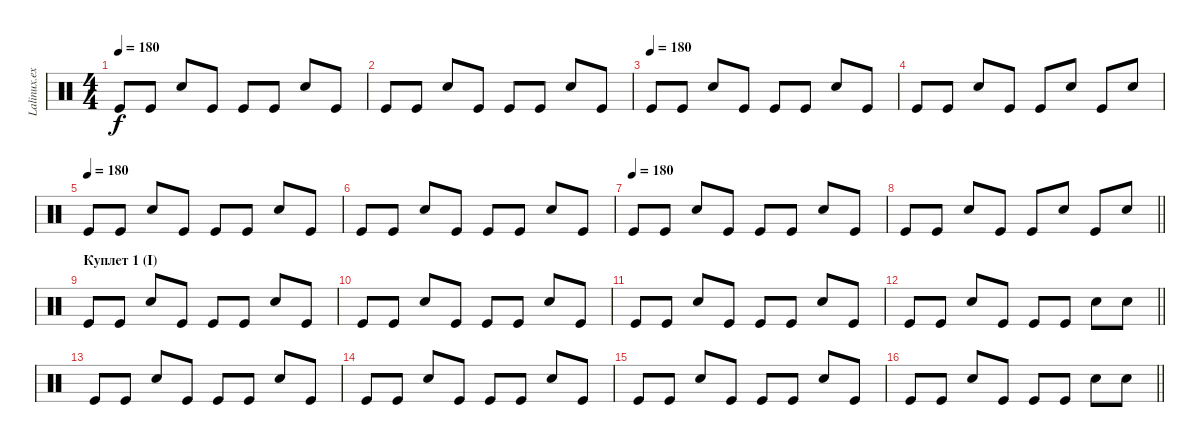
\track ("Lalinux.exe" "Lalinux.ex") {instrument percussion}
\staff {score}
\articulation defaults
\ts (4 4)
\tempo 180
\clef neutral
\ks c "Kick (hit)".8{dy f} "Kick (hit)".8 "Electric Snare (hit)".8 "Kick (hit)".8 "Kick (hit)".8 "Kick (hit)".8 "Electric Snare (hit)".8 "Kick (hit)".8
|
"Kick (hit)".8 "Kick (hit)".8 "Electric Snare (hit)".8 "Kick (hit)".8 "Kick (hit)".8 "Kick (hit)".8 "Electric Snare (hit)".8 "Kick (hit)".8 |
\tempo (180)
"Kick (hit)".8 "Kick (hit)".8 "Electric Snare (hit)".8 "Kick (hit)".8 "Kick (hit)".8 "Kick (hit)".8 "Electric Snare (hit)".8 "Kick (hit)".8 |
"Kick (hit)".8 "Kick (hit)".8 "Electric Snare (hit)".8 "Kick (hit)".8 "Kick (hit)".8 "Electric Snare (hit)".8 "Kick (hit)".8 "Electric Snare (hit)".8 |
\tempo (180)
"Kick (hit)".8 "Kick (hit)".8 "Electric Snare (hit)".8 "Kick (hit)".8 "Kick (hit)".8 "Kick (hit)".8 "Electric Snare (hit)".8 "Kick (hit)".8 |
"Kick (hit)".8 "Kick (hit)".8 "Electric Snare (hit)".8 "Kick (hit)".8 "Kick (hit)".8 "Kick (hit)".8 "Electric Snare (hit)".8 "Kick (hit)".8 |
\tempo (180)
"Kick (hit)".8 "Kick (hit)".8 "Electric Snare (hit)".8 "Kick (hit)".8 "Kick (hit)".8 "Kick (hit)".8 "Electric Snare (hit)".8 "Kick (hit)".8 |
\barLineRight lightlight "Kick (hit)".8 "Kick (hit)".8 "Electric Snare (hit)".8 "Kick (hit)".8 "Kick (hit)".8 "Electric Snare (hit)".8 "Kick (hit)".8 "Electric Snare (hit)".8
|
\section ("" "Куплет 1 (I)")
"Kick (hit)".8 "Kick (hit)".8 "Electric Snare (hit)".8 "Kick (hit)".8 "Kick (hit)".8 "Kick (hit)".8 "Electric Snare (hit)".8 "Kick (hit)".8 |
"Kick (hit)".8 "Kick (hit)".8 "Electric Snare (hit)".8 "Kick (hit)".8 "Kick (hit)".8 "Kick (hit)".8 "Electric Snare (hit)".8 "Kick (hit)".8 |
"Kick (hit)".8 "Kick (hit)".8 "Electric Snare (hit)".8 "Kick (hit)".8 "Kick (hit)".8 "Kick (hit)".8 "Electric Snare (hit)".8 "Kick (hit)".8 |
\barLineRight lightlight "Kick (hit)".8 "Kick (hit)".8 "Electric Snare (hit)".8 "Kick (hit)".8 "Kick (hit)".8 "Kick (hit)".8 "Electric Snare (hit)".8 "Electric Snare (hit)".8
|
"Kick (hit)".8 "Kick (hit)".8 "Electric Snare (hit)".8 "Kick (hit)".8 "Kick (hit)".8 "Kick (hit)".8 "Electric Snare (hit)".8 "Kick (hit)".8 |
"Kick (hit)".8 "Kick (hit)".8 "Electric Snare (hit)".8 "Kick (hit)".8 "Kick (hit)".8 "Kick (hit)".8 "Electric Snare (hit)".8 "Kick (hit)".8 |
"Kick (hit)".8 "Kick (hit)".8 "Electric Snare (hit)".8 "Kick (hit)".8 "Kick (hit)".8 "Kick (hit)".8 "Electric Snare (hit)".8 "Kick (hit)".8 |
\barLineRight lightlight "Kick (hit)".8 "Kick (hit)".8 "Electric Snare (hit)".8 "Kick (hit)".8 "Kick (hit)".8 "Kick (hit)".8 "Electric Snare (hit)".8 "Electric Snare (hit)".8
